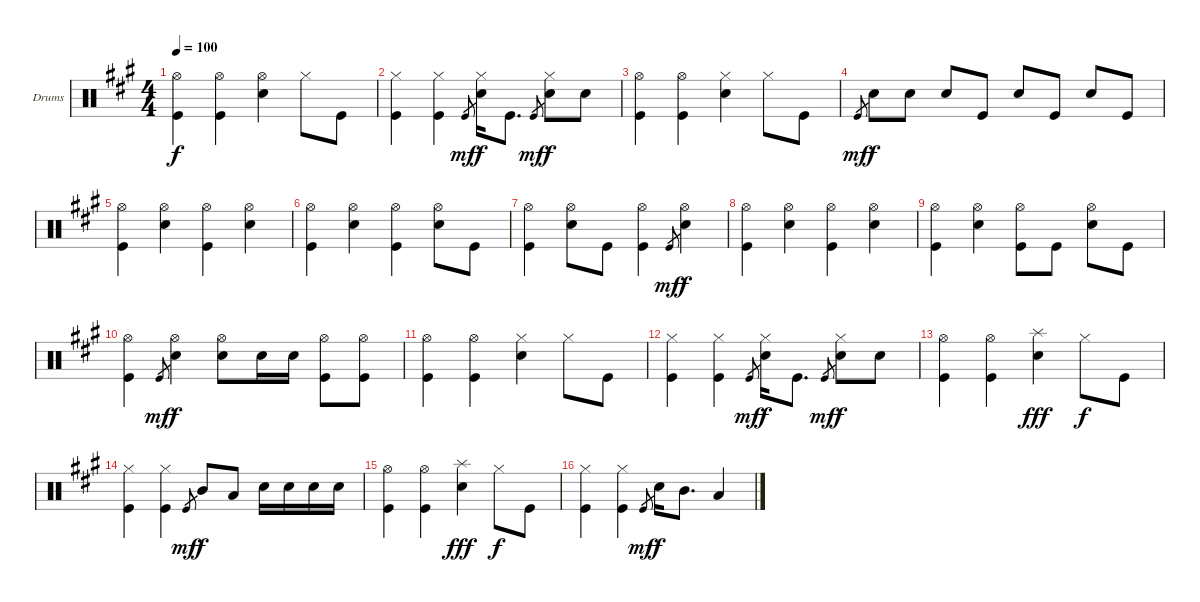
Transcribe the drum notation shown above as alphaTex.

\bracketExtendMode groupsimilarinstruments
\firstSystemTrackNameOrientation horizontal
\otherSystemsTrackNameOrientation horizontal
\track ("Drumkit" "Drums") {instrument percussion}
\staff {score}
\articulation defaults
\ts (4 4)
\tempo 100
\clef neutral
\scale
1.05801
\ks a
("Hi-Hat (open)" "Kick (hit)").4{dy f} ("Hi-Hat (open)" "Kick (hit)").4 ("Hi-Hat (open)" "Snare (hit) 2").4 "Hi-Hat (closed)".8 "Kick (hit)".8 |
\scale
0.941992 ("Hi-Hat (closed)" "Kick (hit)").4 ("Hi-Hat (closed)" "Kick (hit)").4 "Kick (hit)".8{gr dy mf} ("Hi-Hat (closed)" "Snare (hit) 2").16{dy f} "Kick (hit)".8{d} "Kick (hit)".8{gr dy mf} ("Hi-Hat (closed)" "Snare (hit) 2").8{dy f} "Snare (hit) 2".8 |
\scale
1.05801 ("Hi-Hat (open)" "Kick (hit)").4 ("Hi-Hat (open)" "Kick (hit)").4 ("Hi-Hat (closed)" "Snare (hit) 2").4 "Hi-Hat (closed)".8 "Kick (hit)".8 |
\scale
0.941992 "Kick (hit)".8{gr dy mf} "Snare (hit) 2".8{dy f} "Snare (hit) 2".8 "Snare (hit) 2".8 "Kick (hit)".8 "Snare (hit) 2".8 "Kick (hit)".8 "Snare (hit) 2".8 "Kick (hit)".8 |
\scale
1.05801 ("Hi-Hat (open)" "Kick (hit)").4 ("Hi-Hat (open)" "Snare (hit) 2").4 ("Hi-Hat (open)" "Kick (hit)").4 ("Hi-Hat (open)" "Snare (hit) 2").4 |
\scale
0.941992 ("Hi-Hat (open)" "Kick (hit)").4 ("Hi-Hat (open)" "Snare (hit) 2").4 ("Hi-Hat (open)" "Kick (hit)").4 ("Hi-Hat (open)" "Snare (hit) 2").8 "Kick (hit)".8 |
\scale
1.05801 ("Hi-Hat (open)" "Kick (hit)").4 ("Hi-Hat (open)" "Snare (hit) 2").8 "Kick (hit)".8 ("Hi-Hat (open)" "Kick (hit)").4 "Kick (hit)".8{gr dy mf} ("Hi-Hat (open)" "Snare (hit) 2").4{dy f} |
\scale
0.941992 ("Hi-Hat (open)" "Kick (hit)").4 ("Hi-Hat (open)" "Snare (hit) 2").4 ("Hi-Hat (open)" "Kick (hit)").4 ("Hi-Hat (open)" "Snare (hit) 2").4 |
\scale
1.05801 ("Hi-Hat (open)" "Kick (hit)").4 ("Hi-Hat (open)" "Snare (hit) 2").4 ("Hi-Hat (open)" "Kick (hit)").8 "Kick (hit)".8 ("Hi-Hat (open)" "Snare (hit) 2").8 "Kick (hit)".8 |
\scale
0.941992 ("Hi-Hat (open)" "Kick (hit)").4 "Kick (hit)".8{gr dy mf} ("Hi-Hat (open)" "Snare (hit) 2").4{dy f} ("Hi-Hat (open)" "Snare (hit) 2").8 "Snare (hit) 2".16 "Snare (hit) 2".16 ("Hi-Hat (open)" "Kick (hit)").8 ("Hi-Hat (open)" "Kick (hit)").8 |
\scale
1.05801 ("Hi-Hat (open)" "Kick (hit)").4 ("Hi-Hat (open)" "Kick (hit)").4 ("Hi-Hat (closed)" "Snare (hit) 2").4 "Hi-Hat (closed)".8 "Kick (hit)".8 |
\scale
0.941992 ("Hi-Hat (closed)" "Kick (hit)").4 ("Hi-Hat (closed)" "Kick (hit)").4 "Kick (hit)".8{gr dy mf} ("Hi-Hat (closed)" "Snare (hit) 2").16{dy f} "Kick (hit)".8{d} "Kick (hit)".8{gr dy mf} ("Hi-Hat (closed)" "Snare (hit) 2").8{dy f} "Snare (hit) 2".8 |
\scale
1.05801 ("Hi-Hat (open)" "Kick (hit)").4 ("Hi-Hat (open)" "Kick (hit)").4 ("Splash (hit)" "Snare (hit) 2").4{dy fff} "Hi-Hat (closed)".8{dy f} "Kick (hit)".8 |
\scale
0.941992 ("Hi-Hat (closed)" "Kick (hit)").4 ("Hi-Hat (closed)" "Kick (hit)").4 "Kick (hit)".8{gr dy mf} "Mid Tom (hit)".8{dy f} "Low Tom (hit)".8 "Snare (hit) 2".16 "Snare (hit) 2".16 "Snare (hit) 2".16 "Snare (hit) 2".16 |
\scale
1.05801 ("Hi-Hat (open)" "Kick (hit)").4 ("Hi-Hat (open)" "Kick (hit)").4 ("Splash (hit)" "Snare (hit) 2").4{dy fff} "Hi-Hat (closed)".8{dy f} "Kick (hit)".8 |
\scale
0.941992 ("Hi-Hat (closed)" "Kick (hit)").4 ("Hi-Hat (closed)" "Kick (hit)").4 "Kick (hit)".8{gr dy mf} "Snare (hit) 2".16{dy f} "Mid Tom (hit)".8{d} "Low Tom (hit)".4
